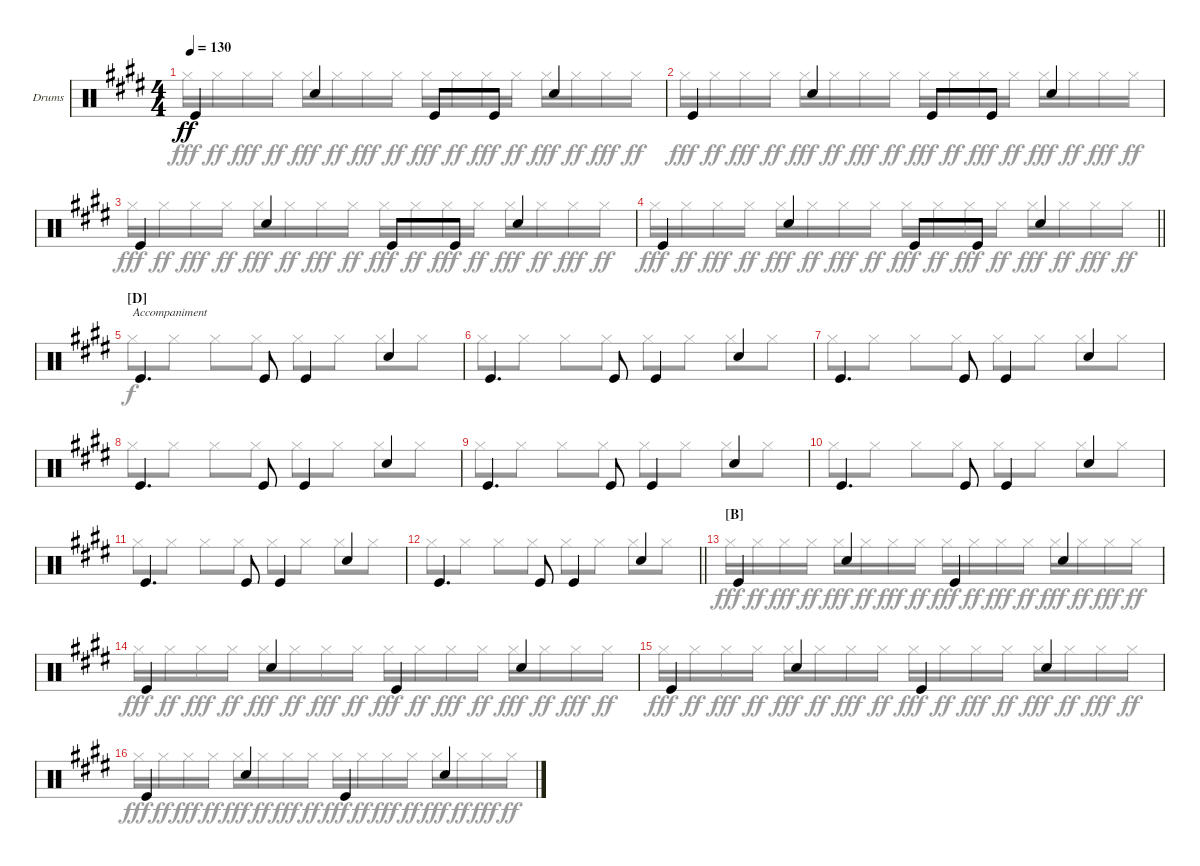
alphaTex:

\bracketExtendMode groupsimilarinstruments
\firstSystemTrackNameOrientation horizontal
\otherSystemsTrackNameOrientation horizontal
\track ("Fabrizo Moretti" "Drums") {instrument percussion}
\staff {score}
\articulation defaults
\voice
\ts (4 4)
\tempo 130
\clef neutral
\ks e "Kick (hit)".4{dy ff} "Snare (hit) 2".4 "Kick (hit)".8 "Kick (hit)".8 "Snare (hit) 2".4
|
"Kick (hit)".4 "Snare (hit) 2".4 "Kick (hit)".8 "Kick (hit)".8 "Snare (hit) 2".4 |
"Kick (hit)".4 "Snare (hit) 2".4 "Kick (hit)".8 "Kick (hit)".8 "Snare (hit) 2".4 |
\barLineRight lightlight "Kick (hit)".4 "Snare (hit) 2".4 "Kick (hit)".8 "Kick (hit)".8 "Snare (hit) 2".4
|
\section ("D" "")
"Kick (hit)".4{d txt "Accompaniment"} "Kick (hit)".8 "Kick (hit)".4 "Snare (hit) 2".4 |
"Kick (hit)".4{d} "Kick (hit)".8 "Kick (hit)".4 "Snare (hit) 2".4 |
"Kick (hit)".4{d} "Kick (hit)".8 "Kick (hit)".4 "Snare (hit) 2".4 |
"Kick (hit)".4{d} "Kick (hit)".8 "Kick (hit)".4 "Snare (hit) 2".4 |
"Kick (hit)".4{d} "Kick (hit)".8 "Kick (hit)".4 "Snare (hit) 2".4 |
"Kick (hit)".4{d} "Kick (hit)".8 "Kick (hit)".4 "Snare (hit) 2".4 |
"Kick (hit)".4{d} "Kick (hit)".8 "Kick (hit)".4 "Snare (hit) 2".4 |
\barLineRight lightlight "Kick (hit)".4{d} "Kick (hit)".8 "Kick (hit)".4 "Snare (hit) 2".4
|
\section ("B" "")
"Kick (hit)".4 "Snare (hit) 2".4 "Kick (hit)".4 "Snare (hit) 2".4 |
"Kick (hit)".4 "Snare (hit) 2".4 "Kick (hit)".4 "Snare (hit) 2".4 |
"Kick (hit)".4 "Snare (hit) 2".4 "Kick (hit)".4 "Snare (hit) 2".4 |
"Kick (hit)".4 "Snare (hit) 2".4 "Kick (hit)".4 "Snare (hit) 2".4
\voice
\clef neutral
\ottava regular
\simile none
\ks e "Hi-Hat (closed)".16{dy fff} "Hi-Hat (closed)".16{dy ff} "Hi-Hat (closed)".16{dy fff} "Hi-Hat (closed)".16{dy ff} "Hi-Hat (closed)".16{dy fff} "Hi-Hat (closed)".16{dy ff} "Hi-Hat (closed)".16{dy fff} "Hi-Hat (closed)".16{dy ff} "Hi-Hat (closed)".16{dy fff} "Hi-Hat (closed)".16{dy ff} "Hi-Hat (closed)".16{dy fff} "Hi-Hat (closed)".16{dy ff} "Hi-Hat (closed)".16{dy fff} "Hi-Hat (closed)".16{dy ff} "Hi-Hat (closed)".16{dy fff} "Hi-Hat (closed)".16{dy ff}
|
"Hi-Hat (closed)".16{dy fff} "Hi-Hat (closed)".16{dy ff} "Hi-Hat (closed)".16{dy fff} "Hi-Hat (closed)".16{dy ff} "Hi-Hat (closed)".16{dy fff} "Hi-Hat (closed)".16{dy ff} "Hi-Hat (closed)".16{dy fff} "Hi-Hat (closed)".16{dy ff} "Hi-Hat (closed)".16{dy fff} "Hi-Hat (closed)".16{dy ff} "Hi-Hat (closed)".16{dy fff} "Hi-Hat (closed)".16{dy ff} "Hi-Hat (closed)".16{dy fff} "Hi-Hat (closed)".16{dy ff} "Hi-Hat (closed)".16{dy fff} "Hi-Hat (closed)".16{dy ff} |
"Hi-Hat (closed)".16{dy fff} "Hi-Hat (closed)".16{dy ff} "Hi-Hat (closed)".16{dy fff} "Hi-Hat (closed)".16{dy ff} "Hi-Hat (closed)".16{dy fff} "Hi-Hat (closed)".16{dy ff} "Hi-Hat (closed)".16{dy fff} "Hi-Hat (closed)".16{dy ff} "Hi-Hat (closed)".16{dy fff} "Hi-Hat (closed)".16{dy ff} "Hi-Hat (closed)".16{dy fff} "Hi-Hat (closed)".16{dy ff} "Hi-Hat (closed)".16{dy fff} "Hi-Hat (closed)".16{dy ff} "Hi-Hat (closed)".16{dy fff} "Hi-Hat (closed)".16{dy ff} |
\barLineRight lightlight "Hi-Hat (closed)".16{dy fff} "Hi-Hat (closed)".16{dy ff} "Hi-Hat (closed)".16{dy fff} "Hi-Hat (closed)".16{dy ff} "Hi-Hat (closed)".16{dy fff} "Hi-Hat (closed)".16{dy ff} "Hi-Hat (closed)".16{dy fff} "Hi-Hat (closed)".16{dy ff} "Hi-Hat (closed)".16{dy fff} "Hi-Hat (closed)".16{dy ff} "Hi-Hat (closed)".16{dy fff} "Hi-Hat (closed)".16{dy ff} "Hi-Hat (closed)".16{dy fff} "Hi-Hat (closed)".16{dy ff} "Hi-Hat (closed)".16{dy fff} "Hi-Hat (closed)".16{dy ff}
|
"Hi-Hat (closed)".8{dy f} "Hi-Hat (closed)".8 "Hi-Hat (closed)".8 "Hi-Hat (closed)".8 "Hi-Hat (closed)".8 "Hi-Hat (closed)".8 "Hi-Hat (closed)".8 "Hi-Hat (closed)".8 |
"Hi-Hat (closed)".8 "Hi-Hat (closed)".8 "Hi-Hat (closed)".8 "Hi-Hat (closed)".8 "Hi-Hat (closed)".8 "Hi-Hat (closed)".8 "Hi-Hat (closed)".8 "Hi-Hat (closed)".8 |
"Hi-Hat (closed)".8 "Hi-Hat (closed)".8 "Hi-Hat (closed)".8 "Hi-Hat (closed)".8 "Hi-Hat (closed)".8 "Hi-Hat (closed)".8 "Hi-Hat (closed)".8 "Hi-Hat (closed)".8 |
"Hi-Hat (closed)".8 "Hi-Hat (closed)".8 "Hi-Hat (closed)".8 "Hi-Hat (closed)".8 "Hi-Hat (closed)".8 "Hi-Hat (closed)".8 "Hi-Hat (closed)".8 "Hi-Hat (closed)".8 |
"Hi-Hat (closed)".8 "Hi-Hat (closed)".8 "Hi-Hat (closed)".8 "Hi-Hat (closed)".8 "Hi-Hat (closed)".8 "Hi-Hat (closed)".8 "Hi-Hat (closed)".8 "Hi-Hat (closed)".8 |
"Hi-Hat (closed)".8 "Hi-Hat (closed)".8 "Hi-Hat (closed)".8 "Hi-Hat (closed)".8 "Hi-Hat (closed)".8 "Hi-Hat (closed)".8 "Hi-Hat (closed)".8 "Hi-Hat (closed)".8 |
"Hi-Hat (closed)".8 "Hi-Hat (closed)".8 "Hi-Hat (closed)".8 "Hi-Hat (closed)".8 "Hi-Hat (closed)".8 "Hi-Hat (closed)".8 "Hi-Hat (closed)".8 "Hi-Hat (closed)".8 |
\barLineRight lightlight "Hi-Hat (closed)".8 "Hi-Hat (closed)".8 "Hi-Hat (closed)".8 "Hi-Hat (closed)".8 "Hi-Hat (closed)".8 "Hi-Hat (closed)".8 "Hi-Hat (closed)".8 "Hi-Hat (closed)".8
|
"Hi-Hat (closed)".16{dy fff} "Hi-Hat (closed)".16{dy ff} "Hi-Hat (closed)".16{dy fff} "Hi-Hat (closed)".16{dy ff} "Hi-Hat (closed)".16{dy fff} "Hi-Hat (closed)".16{dy ff} "Hi-Hat (closed)".16{dy fff} "Hi-Hat (closed)".16{dy ff} "Hi-Hat (closed)".16{dy fff} "Hi-Hat (closed)".16{dy ff} "Hi-Hat (closed)".16{dy fff} "Hi-Hat (closed)".16{dy ff} "Hi-Hat (closed)".16{dy fff} "Hi-Hat (closed)".16{dy ff} "Hi-Hat (closed)".16{dy fff} "Hi-Hat (closed)".16{dy ff} |
"Hi-Hat (closed)".16{dy fff} "Hi-Hat (closed)".16{dy ff} "Hi-Hat (closed)".16{dy fff} "Hi-Hat (closed)".16{dy ff} "Hi-Hat (closed)".16{dy fff} "Hi-Hat (closed)".16{dy ff} "Hi-Hat (closed)".16{dy fff} "Hi-Hat (closed)".16{dy ff} "Hi-Hat (closed)".16{dy fff} "Hi-Hat (closed)".16{dy ff} "Hi-Hat (closed)".16{dy fff} "Hi-Hat (closed)".16{dy ff} "Hi-Hat (closed)".16{dy fff} "Hi-Hat (closed)".16{dy ff} "Hi-Hat (closed)".16{dy fff} "Hi-Hat (closed)".16{dy ff} |
"Hi-Hat (closed)".16{dy fff} "Hi-Hat (closed)".16{dy ff} "Hi-Hat (closed)".16{dy fff} "Hi-Hat (closed)".16{dy ff} "Hi-Hat (closed)".16{dy fff} "Hi-Hat (closed)".16{dy ff} "Hi-Hat (closed)".16{dy fff} "Hi-Hat (closed)".16{dy ff} "Hi-Hat (closed)".16{dy fff} "Hi-Hat (closed)".16{dy ff} "Hi-Hat (closed)".16{dy fff} "Hi-Hat (closed)".16{dy ff} "Hi-Hat (closed)".16{dy fff} "Hi-Hat (closed)".16{dy ff} "Hi-Hat (closed)".16{dy fff} "Hi-Hat (closed)".16{dy ff} |
"Hi-Hat (closed)".16{dy fff} "Hi-Hat (closed)".16{dy ff} "Hi-Hat (closed)".16{dy fff} "Hi-Hat (closed)".16{dy ff} "Hi-Hat (closed)".16{dy fff} "Hi-Hat (closed)".16{dy ff} "Hi-Hat (closed)".16{dy fff} "Hi-Hat (closed)".16{dy ff} "Hi-Hat (closed)".16{dy fff} "Hi-Hat (closed)".16{dy ff} "Hi-Hat (closed)".16{dy fff} "Hi-Hat (closed)".16{dy ff} "Hi-Hat (closed)".16{dy fff} "Hi-Hat (closed)".16{dy ff} "Hi-Hat (closed)".16{dy fff} "Hi-Hat (closed)".16{dy ff}
